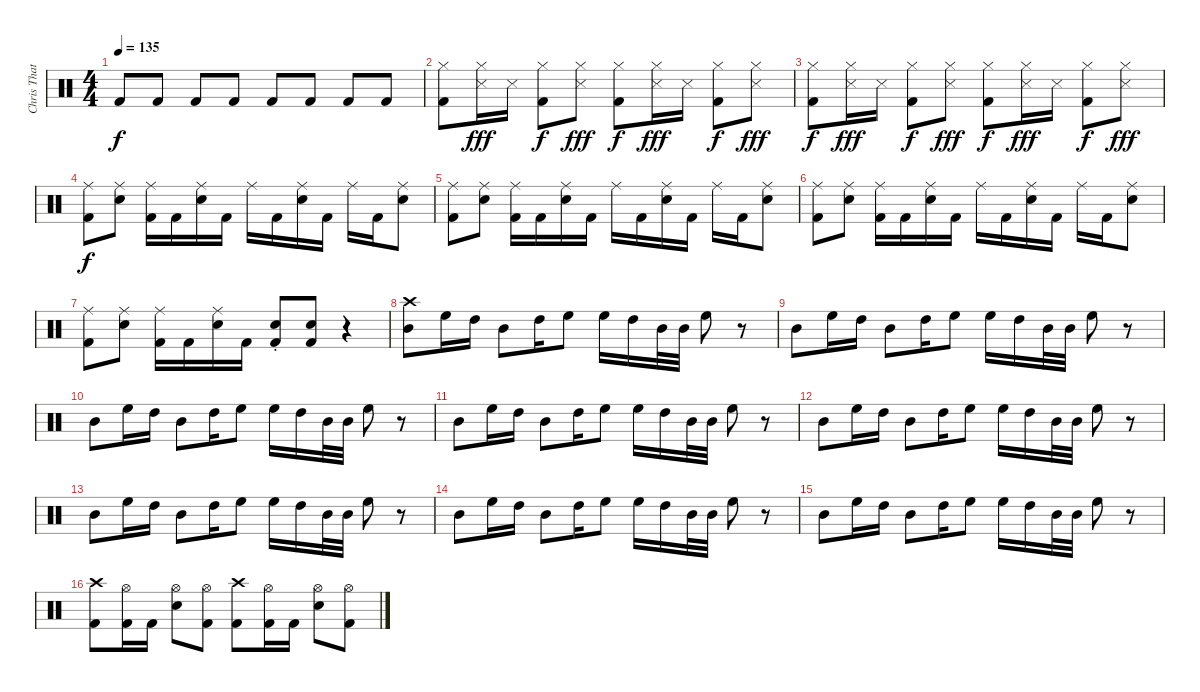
\track ("Chris Thatcher" "Chris That") {instrument percussion}
\staff {score}
\articulation defaults
\ts (4 4)
\tempo 135
\clef neutral
\ks c "Kick (hit) 2".8{dy f} "Kick (hit) 2".8 "Kick (hit) 2".8 "Kick (hit) 2".8 "Kick (hit) 2".8 "Kick (hit) 2".8 "Kick (hit) 2".8 "Kick (hit) 2".8
|
("Hi-Hat (closed)" "Kick (hit) 2").8 ("Hi-Hat (closed)" "Snare (side stick) 3").16{dy fff} "Snare (side stick) 3".16 ("Hi-Hat (closed)" "Kick (hit) 2").8{dy f} ("Hi-Hat (closed)" "Snare (side stick) 3").8{dy fff} ("Hi-Hat (closed)" "Kick (hit) 2").8{dy f} ("Hi-Hat (closed)" "Snare (side stick) 3").16{dy fff} "Snare (side stick) 3".16 ("Hi-Hat (closed)" "Kick (hit) 2").8{dy f} ("Hi-Hat (closed)" "Snare (side stick) 3").8{dy fff} |
("Hi-Hat (closed)" "Kick (hit) 2").8{dy f} ("Hi-Hat (closed)" "Snare (side stick) 3").16{dy fff} "Snare (side stick) 3".16 ("Hi-Hat (closed)" "Kick (hit) 2").8{dy f} ("Hi-Hat (closed)" "Snare (side stick) 3").8{dy fff} ("Hi-Hat (closed)" "Kick (hit) 2").8{dy f} ("Hi-Hat (closed)" "Snare (side stick) 3").16{dy fff} "Snare (side stick) 3".16 ("Hi-Hat (closed)" "Kick (hit) 2").8{dy f} ("Hi-Hat (closed)" "Snare (side stick) 3").8{dy fff} |
("Ride (middle)" "Kick (hit) 2").8{dy f} ("Ride (middle)" "Electric Snare (hit)").8 ("Ride (middle)" "Kick (hit) 2").16 "Kick (hit) 2".16 ("Ride (middle)" "Electric Snare (hit)").16 "Kick (hit) 2".16 "Ride (middle)".16 "Kick (hit) 2".16 ("Ride (middle)" "Electric Snare (hit)").16 "Kick (hit) 2".16 "Ride (middle)".16 "Kick (hit) 2".16 ("Ride (middle)" "Electric Snare (hit)").8 |
("Ride (middle)" "Kick (hit) 2").8 ("Ride (middle)" "Electric Snare (hit)").8 ("Ride (middle)" "Kick (hit) 2").16 "Kick (hit) 2".16 ("Ride (middle)" "Electric Snare (hit)").16 "Kick (hit) 2".16 "Ride (middle)".16 "Kick (hit) 2".16 ("Ride (middle)" "Electric Snare (hit)").16 "Kick (hit) 2".16 "Ride (middle)".16 "Kick (hit) 2".16 ("Ride (middle)" "Electric Snare (hit)").8 |
("Ride (middle)" "Kick (hit) 2").8 ("Ride (middle)" "Electric Snare (hit)").8 ("Ride (middle)" "Kick (hit) 2").16 "Kick (hit) 2".16 ("Ride (middle)" "Electric Snare (hit)").16 "Kick (hit) 2".16 "Ride (middle)".16 "Kick (hit) 2".16 ("Ride (middle)" "Electric Snare (hit)").16 "Kick (hit) 2".16 "Ride (middle)".16 "Kick (hit) 2".16 ("Ride (middle)" "Electric Snare (hit)").8 |
("Ride (middle)" "Kick (hit) 2").8 ("Ride (middle)" "Electric Snare (hit)").8 ("Ride (middle)" "Kick (hit) 2").16 "Kick (hit) 2".16 ("Ride (middle)" "Electric Snare (hit)").16 "Kick (hit) 2".16 ("Electric Snare (hit)"{st} "Kick (hit) 2"{st}).8 ("Electric Snare (hit)" "Kick (hit) 2").8 r.4 |
("Crash high (hit)" "Mid Tom (hit)").8 "High Floor Tom (hit)".16 "High Tom (hit)".16 "Mid Tom (hit)".8 "High Tom (hit)".16 "High Floor Tom (hit)".8 "High Floor Tom (hit)".16 "High Tom (hit)".16 "Mid Tom (hit)".32 "Mid Tom (hit)".32 "High Floor Tom (hit)".8 r.8 |
"Mid Tom (hit)".8 "High Floor Tom (hit)".16 "High Tom (hit)".16 "Mid Tom (hit)".8 "High Tom (hit)".16 "High Floor Tom (hit)".8 "High Floor Tom (hit)".16 "High Tom (hit)".16 "Mid Tom (hit)".32 "Mid Tom (hit)".32 "High Floor Tom (hit)".8 r.8 |
"Mid Tom (hit)".8 "High Floor Tom (hit)".16 "High Tom (hit)".16 "Mid Tom (hit)".8 "High Tom (hit)".16 "High Floor Tom (hit)".8 "High Floor Tom (hit)".16 "High Tom (hit)".16 "Mid Tom (hit)".32 "Mid Tom (hit)".32 "High Floor Tom (hit)".8 r.8 |
"Mid Tom (hit)".8 "High Floor Tom (hit)".16 "High Tom (hit)".16 "Mid Tom (hit)".8 "High Tom (hit)".16 "High Floor Tom (hit)".8 "High Floor Tom (hit)".16 "High Tom (hit)".16 "Mid Tom (hit)".32 "Mid Tom (hit)".32 "High Floor Tom (hit)".8 r.8 |
"Mid Tom (hit)".8 "High Floor Tom (hit)".16 "High Tom (hit)".16 "Mid Tom (hit)".8 "High Tom (hit)".16 "High Floor Tom (hit)".8 "High Floor Tom (hit)".16 "High Tom (hit)".16 "Mid Tom (hit)".32 "Mid Tom (hit)".32 "High Floor Tom (hit)".8 r.8 |
"Mid Tom (hit)".8 "High Floor Tom (hit)".16 "High Tom (hit)".16 "Mid Tom (hit)".8 "High Tom (hit)".16 "High Floor Tom (hit)".8 "High Floor Tom (hit)".16 "High Tom (hit)".16 "Mid Tom (hit)".32 "Mid Tom (hit)".32 "High Floor Tom (hit)".8 r.8 |
"Mid Tom (hit)".8 "High Floor Tom (hit)".16 "High Tom (hit)".16 "Mid Tom (hit)".8 "High Tom (hit)".16 "High Floor Tom (hit)".8 "High Floor Tom (hit)".16 "High Tom (hit)".16 "Mid Tom (hit)".32 "Mid Tom (hit)".32 "High Floor Tom (hit)".8 r.8 |
"Mid Tom (hit)".8 "High Floor Tom (hit)".16 "High Tom (hit)".16 "Mid Tom (hit)".8 "High Tom (hit)".16 "High Floor Tom (hit)".8 "High Floor Tom (hit)".16 "High Tom (hit)".16 "Mid Tom (hit)".32 "Mid Tom (hit)".32 "High Floor Tom (hit)".8 r.8 |
("Crash high (hit)" "Kick (hit) 2").8 ("Hi-Hat (open)" "Kick (hit) 2").16 "Kick (hit) 2".16 ("Hi-Hat (open)" "Electric Snare (hit)").8 ("Hi-Hat (open)" "Kick (hit) 2").8 ("Crash high (hit)" "Kick (hit) 2").8 ("Hi-Hat (open)" "Kick (hit) 2").16 "Kick (hit) 2".16 ("Hi-Hat (open)" "Electric Snare (hit)").8 ("Hi-Hat (open)" "Kick (hit) 2").8
